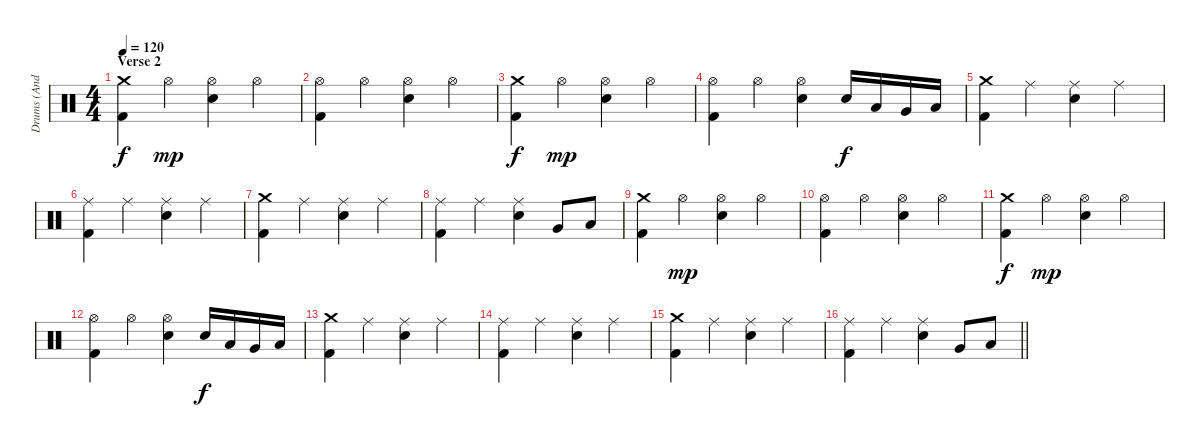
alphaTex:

\track ("Drums (Andy C)" "Drums (And") {instrument percussion}
\staff
\articulation defaults
\ts (4 4)
\section ("" "Verse 2")
\tempo 120
\clef neutral
\ks c
("Crash medium (hit)" "Kick (hit) 2").4{dy f} "Hi-Hat (open)".4{dy mp} ("Hi-Hat (open)" "Electric Snare (hit)").4 "Hi-Hat (open)".4 |
("Hi-Hat (open)" "Kick (hit) 2").4 "Hi-Hat (open)".4 ("Hi-Hat (open)" "Electric Snare (hit)").4 "Hi-Hat (open)".4 |
("Crash medium (hit)" "Kick (hit) 2").4{dy f} "Hi-Hat (open)".4{dy mp} ("Hi-Hat (open)" "Electric Snare (hit)").4 "Hi-Hat (open)".4 |
("Hi-Hat (open)" "Kick (hit) 2").4 "Hi-Hat (open)".4 ("Hi-Hat (open)" "Electric Snare (hit)").4 "Electric Snare (hit)".16{dy f} "Low Tom (hit)".16 "Very Low Tom (hit)".16 "Low Floor Tom (hit)".16 |
("Crash medium (hit)" "Kick (hit) 2").4 "Ride (middle)".4 ("Ride (middle)" "Electric Snare (hit)").4 "Ride (middle)".4 |
("Ride (middle)" "Kick (hit) 2").4 "Ride (middle)".4 ("Ride (middle)" "Electric Snare (hit)").4 "Ride (middle)".4 |
("Crash medium (hit)" "Kick (hit) 2").4 "Ride (middle)".4 ("Ride (middle)" "Electric Snare (hit)").4 "Ride (middle)".4 |
("Ride (middle)" "Kick (hit) 2").4 "Ride (middle)".4 ("Ride (middle)" "Electric Snare (hit)").4 "Very Low Tom (hit)".8 "Low Tom (hit)".8 |
("Crash medium (hit)" "Kick (hit) 2").4 "Hi-Hat (open)".4{dy mp} ("Hi-Hat (open)" "Electric Snare (hit)").4 "Hi-Hat (open)".4 |
("Hi-Hat (open)" "Kick (hit) 2").4 "Hi-Hat (open)".4 ("Hi-Hat (open)" "Electric Snare (hit)").4 "Hi-Hat (open)".4 |
("Crash medium (hit)" "Kick (hit) 2").4{dy f} "Hi-Hat (open)".4{dy mp} ("Hi-Hat (open)" "Electric Snare (hit)").4 "Hi-Hat (open)".4 |
("Hi-Hat (open)" "Kick (hit) 2").4 "Hi-Hat (open)".4 ("Hi-Hat (open)" "Electric Snare (hit)").4 "Electric Snare (hit)".16{dy f} "Low Tom (hit)".16 "Very Low Tom (hit)".16 "Low Floor Tom (hit)".16 |
("Crash medium (hit)" "Kick (hit) 2").4 "Ride (middle)".4 ("Ride (middle)" "Electric Snare (hit)").4 "Ride (middle)".4 |
("Ride (middle)" "Kick (hit) 2").4 "Ride (middle)".4 ("Ride (middle)" "Electric Snare (hit)").4 "Ride (middle)".4 |
("Crash medium (hit)" "Kick (hit) 2").4 "Ride (middle)".4 ("Ride (middle)" "Electric Snare (hit)").4 "Ride (middle)".4 |
\barLineRight lightlight
("Ride (middle)" "Kick (hit) 2").4 "Ride (middle)".4 ("Ride (middle)" "Electric Snare (hit)").4 "Very Low Tom (hit)".8 "Low Tom (hit)".8
